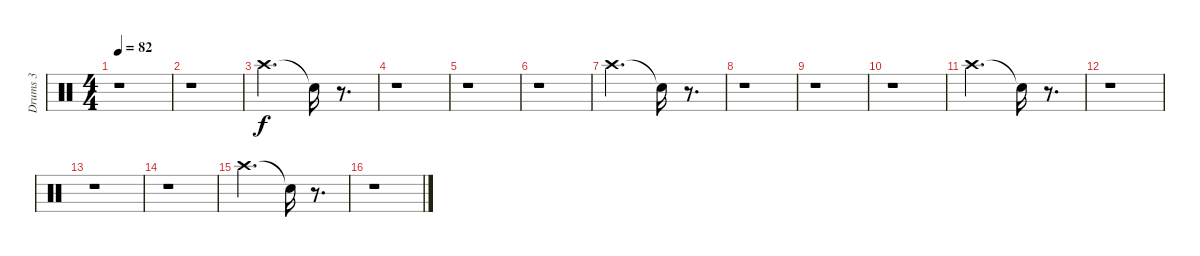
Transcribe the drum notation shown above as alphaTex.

\track ("Drums 3" "Drums 3") {instrument percussion}
\staff {score}
\articulation defaults
\ts (4 4)
\tempo 82
\clef neutral
\ks c
r.1{dy ff} |
r.1 |
"Crash high (hit)".2{d dy f} "Snare (hit)"{t}.16 r.8{d} |
r.1 |
r.1 |
r.1 |
"Crash high (hit)".2{d} "Snare (hit)"{t}.16 r.8{d} |
r.1 |
r.1 |
r.1 |
"Crash high (hit)".2{d} "Snare (hit)"{t}.16 r.8{d} |
r.1 |
r.1 |
r.1 |
"Crash high (hit)".2{d} "Snare (hit)"{t}.16 r.8{d} |
r.1
